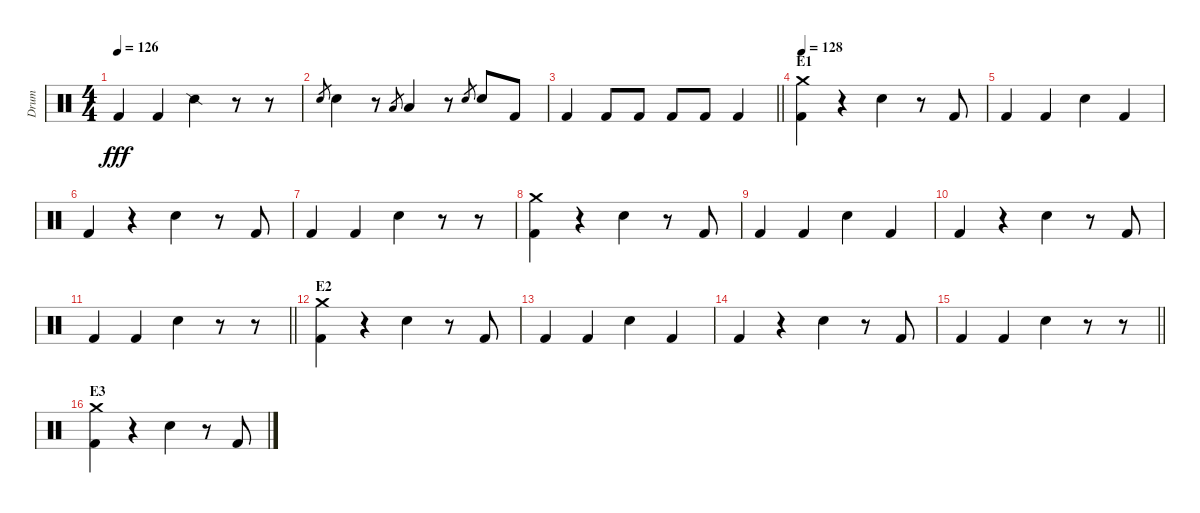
\track ("Drum" "Drum") {instrument percussion}
\staff {score}
\articulation defaults
\ts (4 4)
\tempo 126
\clef neutral
\ks c "Kick (hit) 2".4{dy fff} "Kick (hit) 2".4 "Snare (side stick) 2".4
r.8 r.8 |
"Electric Snare (hit)".8{gr} "Electric Snare (hit)".4 r.8 "Low Tom (hit)".8{gr} "Low Tom (hit)".4 r.8 "Electric Snare (hit)".8{gr} "Electric Snare (hit)".8 "Kick (hit) 2".8 |
\barLineRight lightlight "Kick (hit) 2".4 "Kick (hit) 2".8 "Kick (hit) 2".8 "Kick (hit) 2".8 "Kick (hit) 2".8 "Kick (hit) 2".4
|
\section ("" "E1")
\tempo 128
("Kick (hit) 2" "Crash medium (hit)").4 r.4 "Electric Snare (hit)".4 r.8 "Kick (hit) 2".8 |
"Kick (hit) 2".4 "Kick (hit) 2".4 "Electric Snare (hit)".4 "Kick (hit) 2".4 |
"Kick (hit) 2".4 r.4 "Electric Snare (hit)".4 r.8 "Kick (hit) 2".8 |
"Kick (hit) 2".4 "Kick (hit) 2".4 "Electric Snare (hit)".4 r.8 r.8 |
("Kick (hit) 2" "Crash medium (hit)").4 r.4 "Electric Snare (hit)".4 r.8 "Kick (hit) 2".8 |
"Kick (hit) 2".4 "Kick (hit) 2".4 "Electric Snare (hit)".4 "Kick (hit) 2".4 |
"Kick (hit) 2".4 r.4 "Electric Snare (hit)".4 r.8 "Kick (hit) 2".8 |
\barLineRight lightlight "Kick (hit) 2".4 "Kick (hit) 2".4 "Electric Snare (hit)".4
r.8 r.8 |
\section ("" "E2")
("Kick (hit) 2" "Crash medium (hit)").4 r.4 "Electric Snare (hit)".4 r.8 "Kick (hit) 2".8 |
"Kick (hit) 2".4 "Kick (hit) 2".4 "Electric Snare (hit)".4 "Kick (hit) 2".4 |
"Kick (hit) 2".4 r.4 "Electric Snare (hit)".4 r.8 "Kick (hit) 2".8 |
\barLineRight lightlight "Kick (hit) 2".4 "Kick (hit) 2".4 "Electric Snare (hit)".4
r.8 r.8 |
\section ("" "E3")
("Kick (hit) 2" "Crash medium (hit)").4 r.4 "Electric Snare (hit)".4 r.8 "Kick (hit) 2".8
